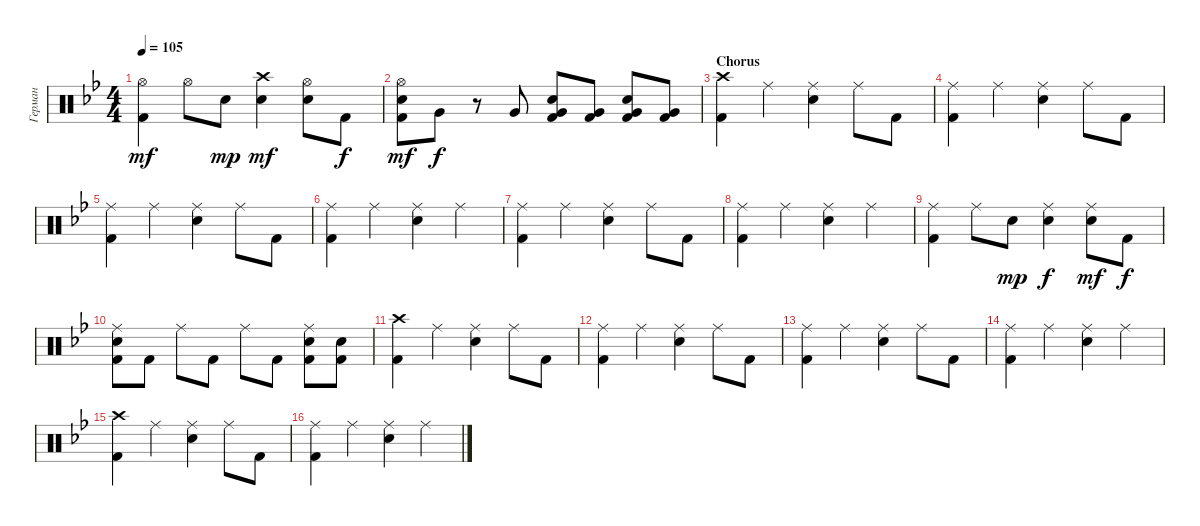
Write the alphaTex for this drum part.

\track ("Герман" "Герман") {instrument percussion}
\staff {score}
\articulation defaults
\ts (4 4)
\tempo 105
\clef neutral
\ks gminor
("Hi-Hat (open)" "Kick (hit) 2").4{dy mf} "Hi-Hat (open)".8 "Electric Snare (hit)".8{dy mp} ("Crash high (hit)" "Electric Snare (hit)").4{dy mf} ("Hi-Hat (open)" "Electric Snare (hit)").8 "Kick (hit) 2".8{dy f} |
("Hi-Hat (open)" "Electric Snare (hit)" "Kick (hit) 2").8{dy mf} "Very Low Tom (hit)".8{dy f} r.8 "Very Low Tom (hit)".8 ("Very Low Tom (hit)" "Electric Snare (hit)" "Kick (hit) 2").8 ("Very Low Tom (hit)" "Kick (hit) 2").8 ("Very Low Tom (hit)" "Electric Snare (hit)" "Kick (hit) 2").8 ("Very Low Tom (hit)" "Kick (hit) 2").8 |
\section ("" "Chorus")
("Crash high (hit)" "Kick (hit) 2").4 "Ride (middle)".4 ("Ride (middle)" "Electric Snare (hit)").4 "Ride (middle)".8 "Kick (hit) 2".8 |
("Ride (middle)" "Kick (hit) 2").4 "Ride (middle)".4 ("Ride (middle)" "Electric Snare (hit)").4 "Ride (middle)".8 "Kick (hit) 2".8 |
("Ride (middle)" "Kick (hit) 2").4 "Ride (middle)".4 ("Ride (middle)" "Electric Snare (hit)").4 "Ride (middle)".8 "Kick (hit) 2".8 |
("Ride (middle)" "Kick (hit) 2").4 "Ride (middle)".4 ("Ride (middle)" "Electric Snare (hit)").4 "Ride (middle)".4 |
("Ride (middle)" "Kick (hit) 2").4 "Ride (middle)".4 ("Ride (middle)" "Electric Snare (hit)").4 "Ride (middle)".8 "Kick (hit) 2".8 |
("Ride (middle)" "Kick (hit) 2").4 "Ride (middle)".4 ("Ride (middle)" "Electric Snare (hit)").4 "Ride (middle)".4 |
("Ride (middle)" "Kick (hit) 2").4 "Ride (middle)".8 "Electric Snare (hit)".8{dy mp} ("Ride (middle)" "Electric Snare (hit)").4{dy f} ("Ride (middle)" "Electric Snare (hit)").8{dy mf} "Kick (hit) 2".8{dy f} |
("Ride (middle)" "Electric Snare (hit)" "Kick (hit) 2").8 "Kick (hit) 2".8 "Ride (middle)".8 "Kick (hit) 2".8 "Ride (middle)".8 "Kick (hit) 2".8 ("Ride (middle)" "Electric Snare (hit)" "Kick (hit) 2").8 ("Electric Snare (hit)" "Kick (hit) 2").8 |
("Crash high (hit)" "Kick (hit) 2").4 "Ride (middle)".4 ("Ride (middle)" "Electric Snare (hit)").4 "Ride (middle)".8 "Kick (hit) 2".8 |
("Ride (middle)" "Kick (hit) 2").4 "Ride (middle)".4 ("Ride (middle)" "Electric Snare (hit)").4 "Ride (middle)".8 "Kick (hit) 2".8 |
("Ride (middle)" "Kick (hit) 2").4 "Ride (middle)".4 ("Ride (middle)" "Electric Snare (hit)").4 "Ride (middle)".8 "Kick (hit) 2".8 |
("Ride (middle)" "Kick (hit) 2").4 "Ride (middle)".4 ("Ride (middle)" "Electric Snare (hit)").4 "Ride (middle)".4 |
("Crash high (hit)" "Kick (hit) 2").4 "Ride (middle)".4 ("Ride (middle)" "Electric Snare (hit)").4 "Ride (middle)".8 "Kick (hit) 2".8 |
("Ride (middle)" "Kick (hit) 2").4 "Ride (middle)".4 ("Ride (middle)" "Electric Snare (hit)").4 "Ride (middle)".4
